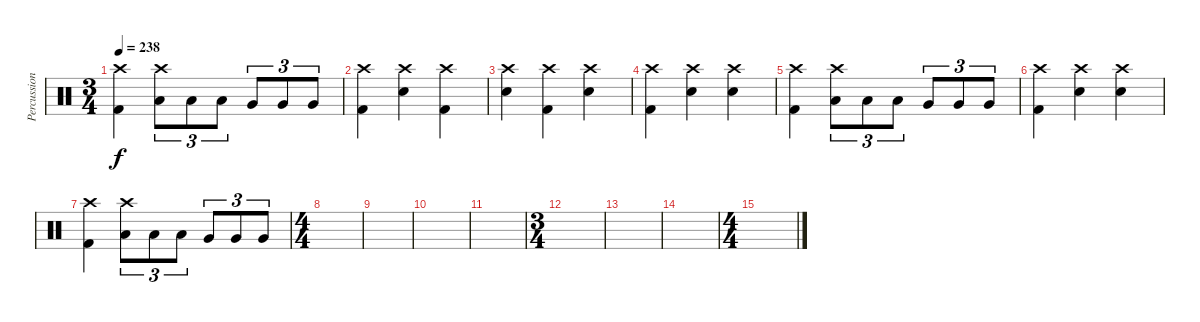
\track ("Percussion" "Percussion") {instrument percussion}
\staff {score}
\articulation defaults
\ts (3 4)
\tempo 238
\clef neutral
\ks c
("Crash high (hit)" "Kick (hit) 2").4{dy f} ("Crash high (hit)" "Low Tom (hit)").8{tu (3 2)} "Low Tom (hit)".8{tu (3 2)} "Low Tom (hit)".8{tu (3 2)} "Very Low Tom (hit)".8{tu (3 2)} "Very Low Tom (hit)".8{tu (3 2)} "Very Low Tom (hit)".8{tu (3 2)} |
("Crash high (hit)" "Kick (hit) 2").4 ("Crash high (hit)" "Electric Snare (hit)").4 ("Crash high (hit)" "Kick (hit) 2").4 |
("Crash high (hit)" "Electric Snare (hit)").4 ("Crash high (hit)" "Kick (hit) 2").4 ("Crash high (hit)" "Electric Snare (hit)").4 |
("Crash high (hit)" "Kick (hit) 2").4 ("Crash high (hit)" "Electric Snare (hit)").4 ("Crash high (hit)" "Electric Snare (hit)").4 |
("Crash high (hit)" "Kick (hit) 2").4 ("Crash high (hit)" "Low Tom (hit)").8{tu (3 2)} "Low Tom (hit)".8{tu (3 2)} "Low Tom (hit)".8{tu (3 2)} "Very Low Tom (hit)".8{tu (3 2)} "Very Low Tom (hit)".8{tu (3 2)} "Very Low Tom (hit)".8{tu (3 2)} |
("Crash high (hit)" "Kick (hit) 2").4 ("Crash high (hit)" "Electric Snare (hit)").4 ("Crash high (hit)" "Electric Snare (hit)").4 |
("Crash high (hit)" "Kick (hit) 2").4 ("Crash high (hit)" "Low Tom (hit)").8{tu (3 2)} "Low Tom (hit)".8{tu (3 2)} "Low Tom (hit)".8{tu (3 2)} "Very Low Tom (hit)".8{tu (3 2)} "Very Low Tom (hit)".8{tu (3 2)} "Very Low Tom (hit)".8{tu (3 2)} |
\ts (4 4)
|
|
|
|
\ts (3 4)
|
|
|
\ts (4 4)
